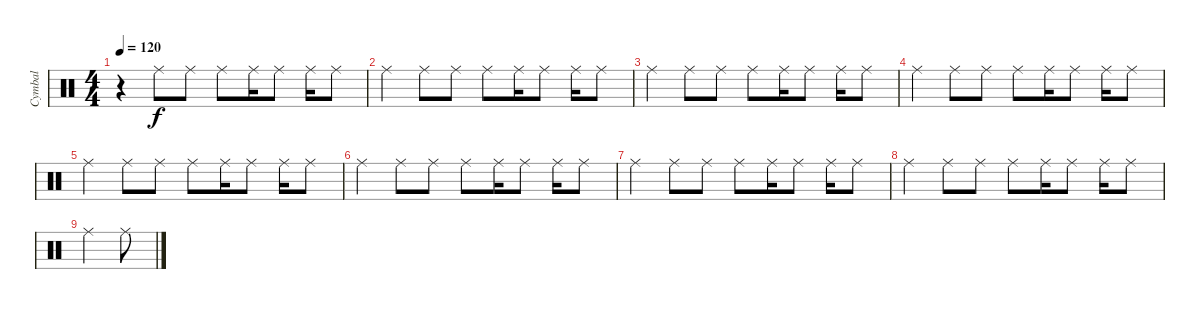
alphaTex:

\track ("Cymbal" "Cymbal") {instrument percussion}
\staff {score}
\articulation defaults
\ts (4 4)
\tempo 120
\clef neutral
\ks c
r.4{dy f} "Ride (middle)".8 "Ride (middle)".8 "Ride (middle)".8 "Ride (middle)".16 "Ride (middle)".8 "Ride (middle)".16 "Ride (middle)".8 |
"Ride (middle)".4 "Ride (middle)".8 "Ride (middle)".8 "Ride (middle)".8 "Ride (middle)".16 "Ride (middle)".8 "Ride (middle)".16 "Ride (middle)".8 |
"Ride (middle)".4 "Ride (middle)".8 "Ride (middle)".8 "Ride (middle)".8 "Ride (middle)".16 "Ride (middle)".8 "Ride (middle)".16 "Ride (middle)".8 |
"Ride (middle)".4 "Ride (middle)".8 "Ride (middle)".8 "Ride (middle)".8 "Ride (middle)".16 "Ride (middle)".8 "Ride (middle)".16 "Ride (middle)".8 |
"Ride (middle)".4 "Ride (middle)".8 "Ride (middle)".8 "Ride (middle)".8 "Ride (middle)".16 "Ride (middle)".8 "Ride (middle)".16 "Ride (middle)".8 |
"Ride (middle)".4 "Ride (middle)".8 "Ride (middle)".8 "Ride (middle)".8 "Ride (middle)".16 "Ride (middle)".8 "Ride (middle)".16 "Ride (middle)".8 |
"Ride (middle)".4 "Ride (middle)".8 "Ride (middle)".8 "Ride (middle)".8 "Ride (middle)".16 "Ride (middle)".8 "Ride (middle)".16 "Ride (middle)".8 |
"Ride (middle)".4 "Ride (middle)".8 "Ride (middle)".8 "Ride (middle)".8 "Ride (middle)".16 "Ride (middle)".8 "Ride (middle)".16 "Ride (middle)".8 |
"Ride (middle)".4 "Ride (middle)".8
